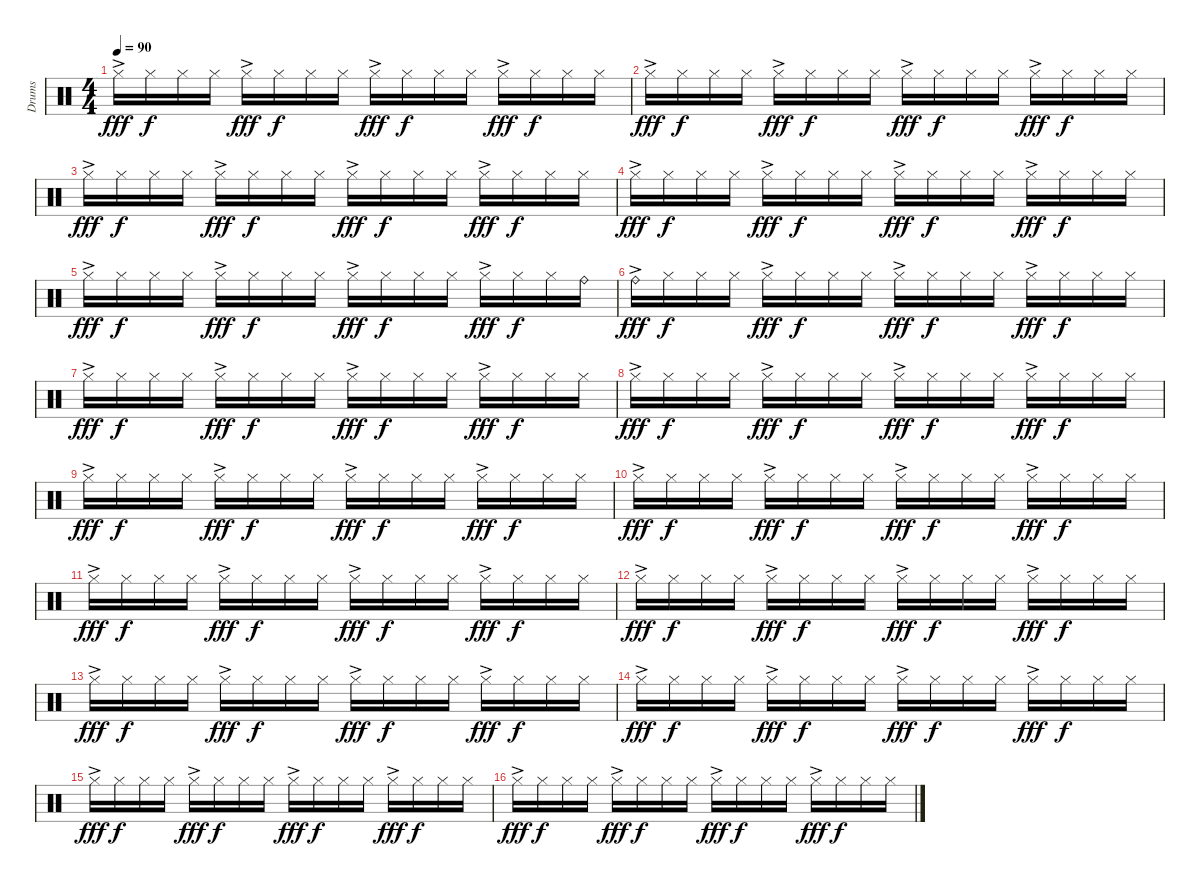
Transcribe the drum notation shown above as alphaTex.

\track ("Drums" "Drums") {instrument percussion}
\staff {score}
\articulation defaults
\ts (4 4)
\tempo 90
\clef neutral
\ks aminor "Hi-Hat (closed)"{ac}.16{dy fff} "Hi-Hat (closed)".16{dy f} "Hi-Hat (closed)".16 "Hi-Hat (closed)".16 "Hi-Hat (closed)"{ac}.16{dy fff} "Hi-Hat (closed)".16{dy f} "Hi-Hat (closed)".16 "Hi-Hat (closed)".16 "Hi-Hat (closed)"{ac}.16{dy fff} "Hi-Hat (closed)".16{dy f} "Hi-Hat (closed)".16 "Hi-Hat (closed)".16 "Hi-Hat (closed)"{ac}.16{dy fff} "Hi-Hat (closed)".16{dy f} "Hi-Hat (closed)".16 "Hi-Hat (closed)".16
|
"Hi-Hat (closed)"{ac}.16{dy fff} "Hi-Hat (closed)".16{dy f} "Hi-Hat (closed)".16 "Hi-Hat (closed)".16 "Hi-Hat (closed)"{ac}.16{dy fff} "Hi-Hat (closed)".16{dy f} "Hi-Hat (closed)".16 "Hi-Hat (closed)".16 "Hi-Hat (closed)"{ac}.16{dy fff} "Hi-Hat (closed)".16{dy f} "Hi-Hat (closed)".16 "Hi-Hat (closed)".16 "Hi-Hat (closed)"{ac}.16{dy fff} "Hi-Hat (closed)".16{dy f} "Hi-Hat (closed)".16 "Hi-Hat (closed)".16 |
"Hi-Hat (closed)"{ac}.16{dy fff} "Hi-Hat (closed)".16{dy f} "Hi-Hat (closed)".16 "Hi-Hat (closed)".16 "Hi-Hat (closed)"{ac}.16{dy fff} "Hi-Hat (closed)".16{dy f} "Hi-Hat (closed)".16 "Hi-Hat (closed)".16 "Hi-Hat (closed)"{ac}.16{dy fff} "Hi-Hat (closed)".16{dy f} "Hi-Hat (closed)".16 "Hi-Hat (closed)".16 "Hi-Hat (closed)"{ac}.16{dy fff} "Hi-Hat (closed)".16{dy f} "Hi-Hat (closed)".16 "Hi-Hat (closed)".16 |
"Hi-Hat (closed)"{ac}.16{dy fff} "Hi-Hat (closed)".16{dy f} "Hi-Hat (closed)".16 "Hi-Hat (closed)".16 "Hi-Hat (closed)"{ac}.16{dy fff} "Hi-Hat (closed)".16{dy f} "Hi-Hat (closed)".16 "Hi-Hat (closed)".16 "Hi-Hat (closed)"{ac}.16{dy fff} "Hi-Hat (closed)".16{dy f} "Hi-Hat (closed)".16 "Hi-Hat (closed)".16 "Hi-Hat (closed)"{ac}.16{dy fff} "Hi-Hat (closed)".16{dy f} "Hi-Hat (closed)".16 "Hi-Hat (closed)".16 |
"Hi-Hat (closed)"{ac}.16{dy fff} "Hi-Hat (closed)".16{dy f} "Hi-Hat (closed)".16 "Hi-Hat (closed)".16 "Hi-Hat (closed)"{ac}.16{dy fff} "Hi-Hat (closed)".16{dy f} "Hi-Hat (closed)".16 "Hi-Hat (closed)".16 "Hi-Hat (closed)"{ac}.16{dy fff} "Hi-Hat (closed)".16{dy f} "Hi-Hat (closed)".16 "Hi-Hat (closed)".16 "Hi-Hat (closed)"{ac}.16{dy fff} "Hi-Hat (closed)".16{dy f} "Hi-Hat (closed)".16 "Ride (bell)".16 |
"Ride (bell)"{ac}.16{dy fff} "Hi-Hat (closed)".16{dy f} "Hi-Hat (closed)".16 "Hi-Hat (closed)".16 "Hi-Hat (closed)"{ac}.16{dy fff} "Hi-Hat (closed)".16{dy f} "Hi-Hat (closed)".16 "Hi-Hat (closed)".16 "Hi-Hat (closed)"{ac}.16{dy fff} "Hi-Hat (closed)".16{dy f} "Hi-Hat (closed)".16 "Hi-Hat (closed)".16 "Hi-Hat (closed)"{ac}.16{dy fff} "Hi-Hat (closed)".16{dy f} "Hi-Hat (closed)".16 "Hi-Hat (closed)".16 |
"Hi-Hat (closed)"{ac}.16{dy fff} "Hi-Hat (closed)".16{dy f} "Hi-Hat (closed)".16 "Hi-Hat (closed)".16 "Hi-Hat (closed)"{ac}.16{dy fff} "Hi-Hat (closed)".16{dy f} "Hi-Hat (closed)".16 "Hi-Hat (closed)".16 "Hi-Hat (closed)"{ac}.16{dy fff} "Hi-Hat (closed)".16{dy f} "Hi-Hat (closed)".16 "Hi-Hat (closed)".16 "Hi-Hat (closed)"{ac}.16{dy fff} "Hi-Hat (closed)".16{dy f} "Hi-Hat (closed)".16 "Hi-Hat (closed)".16 |
"Hi-Hat (closed)"{ac}.16{dy fff} "Hi-Hat (closed)".16{dy f} "Hi-Hat (closed)".16 "Hi-Hat (closed)".16 "Hi-Hat (closed)"{ac}.16{dy fff} "Hi-Hat (closed)".16{dy f} "Hi-Hat (closed)".16 "Hi-Hat (closed)".16 "Hi-Hat (closed)"{ac}.16{dy fff} "Hi-Hat (closed)".16{dy f} "Hi-Hat (closed)".16 "Hi-Hat (closed)".16 "Hi-Hat (closed)"{ac}.16{dy fff} "Hi-Hat (closed)".16{dy f} "Hi-Hat (closed)".16 "Hi-Hat (closed)".16 |
"Hi-Hat (closed)"{ac}.16{dy fff} "Hi-Hat (closed)".16{dy f} "Hi-Hat (closed)".16 "Hi-Hat (closed)".16 "Hi-Hat (closed)"{ac}.16{dy fff} "Hi-Hat (closed)".16{dy f} "Hi-Hat (closed)".16 "Hi-Hat (closed)".16 "Hi-Hat (closed)"{ac}.16{dy fff} "Hi-Hat (closed)".16{dy f} "Hi-Hat (closed)".16 "Hi-Hat (closed)".16 "Hi-Hat (closed)"{ac}.16{dy fff} "Hi-Hat (closed)".16{dy f} "Hi-Hat (closed)".16 "Hi-Hat (closed)".16 |
"Hi-Hat (closed)"{ac}.16{dy fff} "Hi-Hat (closed)".16{dy f} "Hi-Hat (closed)".16 "Hi-Hat (closed)".16 "Hi-Hat (closed)"{ac}.16{dy fff} "Hi-Hat (closed)".16{dy f} "Hi-Hat (closed)".16 "Hi-Hat (closed)".16 "Hi-Hat (closed)"{ac}.16{dy fff} "Hi-Hat (closed)".16{dy f} "Hi-Hat (closed)".16 "Hi-Hat (closed)".16 "Hi-Hat (closed)"{ac}.16{dy fff} "Hi-Hat (closed)".16{dy f} "Hi-Hat (closed)".16 "Hi-Hat (closed)".16 |
"Hi-Hat (closed)"{ac}.16{dy fff} "Hi-Hat (closed)".16{dy f} "Hi-Hat (closed)".16 "Hi-Hat (closed)".16 "Hi-Hat (closed)"{ac}.16{dy fff} "Hi-Hat (closed)".16{dy f} "Hi-Hat (closed)".16 "Hi-Hat (closed)".16 "Hi-Hat (closed)"{ac}.16{dy fff} "Hi-Hat (closed)".16{dy f} "Hi-Hat (closed)".16 "Hi-Hat (closed)".16 "Hi-Hat (closed)"{ac}.16{dy fff} "Hi-Hat (closed)".16{dy f} "Hi-Hat (closed)".16 "Hi-Hat (closed)".16 |
"Hi-Hat (closed)"{ac}.16{dy fff} "Hi-Hat (closed)".16{dy f} "Hi-Hat (closed)".16 "Hi-Hat (closed)".16 "Hi-Hat (closed)"{ac}.16{dy fff} "Hi-Hat (closed)".16{dy f} "Hi-Hat (closed)".16 "Hi-Hat (closed)".16 "Hi-Hat (closed)"{ac}.16{dy fff} "Hi-Hat (closed)".16{dy f} "Hi-Hat (closed)".16 "Hi-Hat (closed)".16 "Hi-Hat (closed)"{ac}.16{dy fff} "Hi-Hat (closed)".16{dy f} "Hi-Hat (closed)".16 "Hi-Hat (closed)".16 |
"Hi-Hat (closed)"{ac}.16{dy fff} "Hi-Hat (closed)".16{dy f} "Hi-Hat (closed)".16 "Hi-Hat (closed)".16 "Hi-Hat (closed)"{ac}.16{dy fff} "Hi-Hat (closed)".16{dy f} "Hi-Hat (closed)".16 "Hi-Hat (closed)".16 "Hi-Hat (closed)"{ac}.16{dy fff} "Hi-Hat (closed)".16{dy f} "Hi-Hat (closed)".16 "Hi-Hat (closed)".16 "Hi-Hat (closed)"{ac}.16{dy fff} "Hi-Hat (closed)".16{dy f} "Hi-Hat (closed)".16 "Hi-Hat (closed)".16 |
"Hi-Hat (closed)"{ac}.16{dy fff} "Hi-Hat (closed)".16{dy f} "Hi-Hat (closed)".16 "Hi-Hat (closed)".16 "Hi-Hat (closed)"{ac}.16{dy fff} "Hi-Hat (closed)".16{dy f} "Hi-Hat (closed)".16 "Hi-Hat (closed)".16 "Hi-Hat (closed)"{ac}.16{dy fff} "Hi-Hat (closed)".16{dy f} "Hi-Hat (closed)".16 "Hi-Hat (closed)".16 "Hi-Hat (closed)"{ac}.16{dy fff} "Hi-Hat (closed)".16{dy f} "Hi-Hat (closed)".16 "Hi-Hat (closed)".16 |
"Hi-Hat (closed)"{ac}.16{dy fff} "Hi-Hat (closed)".16{dy f} "Hi-Hat (closed)".16 "Hi-Hat (closed)".16 "Hi-Hat (closed)"{ac}.16{dy fff} "Hi-Hat (closed)".16{dy f} "Hi-Hat (closed)".16 "Hi-Hat (closed)".16 "Hi-Hat (closed)"{ac}.16{dy fff} "Hi-Hat (closed)".16{dy f} "Hi-Hat (closed)".16 "Hi-Hat (closed)".16 "Hi-Hat (closed)"{ac}.16{dy fff} "Hi-Hat (closed)".16{dy f} "Hi-Hat (closed)".16 "Hi-Hat (closed)".16 |
"Hi-Hat (closed)"{ac}.16{dy fff} "Hi-Hat (closed)".16{dy f} "Hi-Hat (closed)".16 "Hi-Hat (closed)".16 "Hi-Hat (closed)"{ac}.16{dy fff} "Hi-Hat (closed)".16{dy f} "Hi-Hat (closed)".16 "Hi-Hat (closed)".16 "Hi-Hat (closed)"{ac}.16{dy fff} "Hi-Hat (closed)".16{dy f} "Hi-Hat (closed)".16 "Hi-Hat (closed)".16 "Hi-Hat (closed)"{ac}.16{dy fff} "Hi-Hat (closed)".16{dy f} "Hi-Hat (closed)".16 "Hi-Hat (closed)".16
